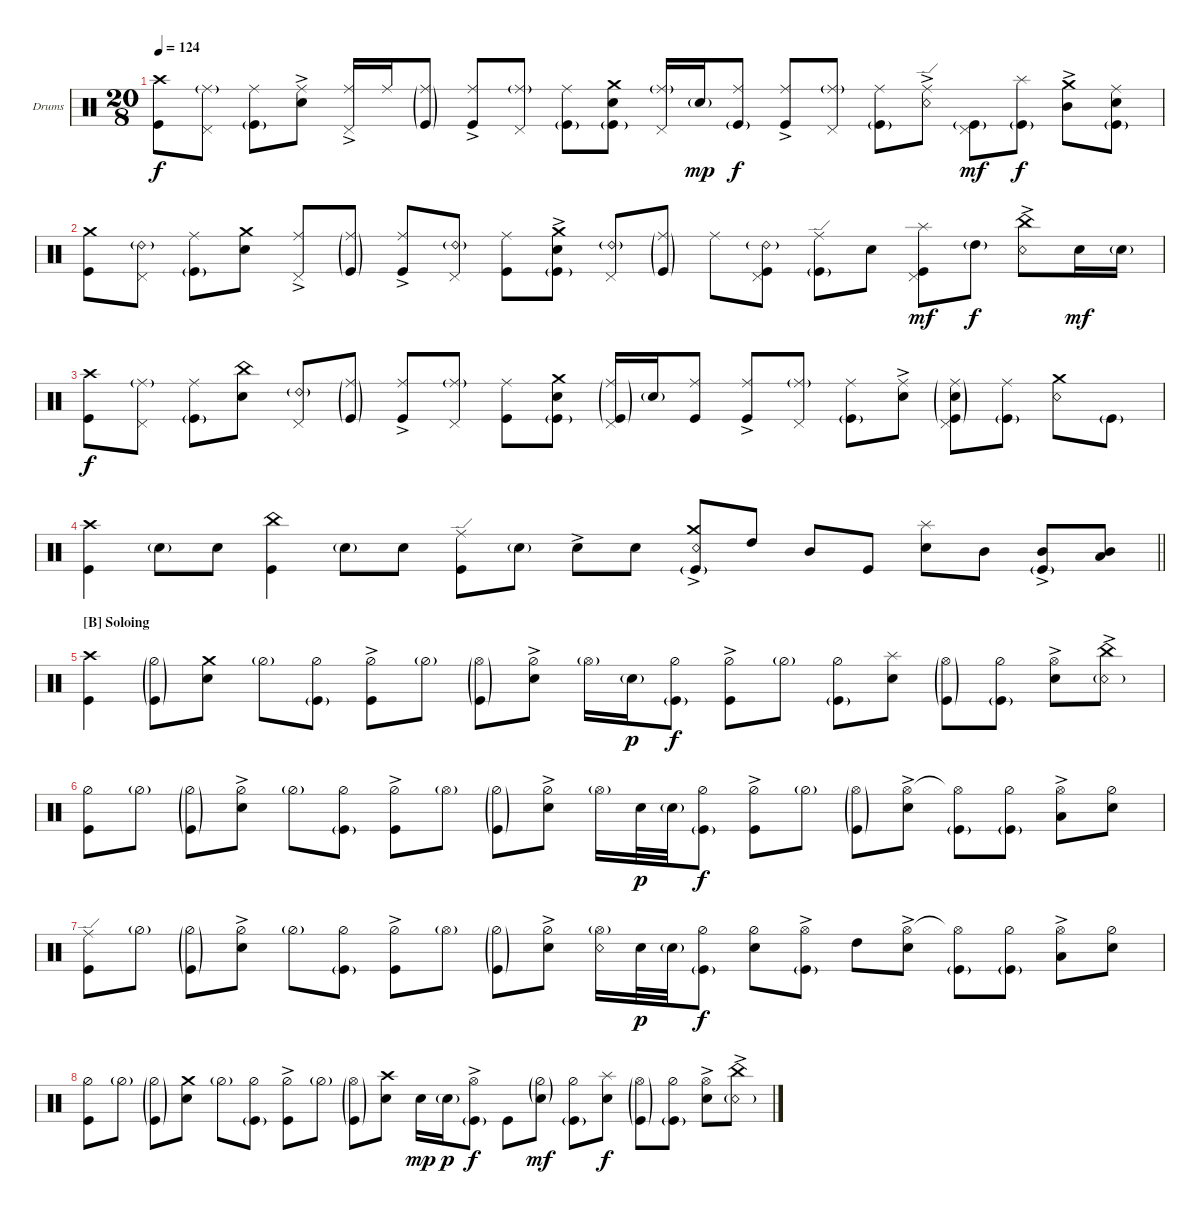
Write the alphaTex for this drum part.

\bracketExtendMode groupsimilarinstruments
\firstSystemTrackNameOrientation horizontal
\otherSystemsTrackNameOrientation horizontal
\track ("Drumkit" "Drums") {instrument percussion}
\staff {score}
\articulation defaults
\ts (20 8)
\tempo 124
\clef neutral
\ks c
("Kick (hit)" "Crash high (hit)").8{dy f} ("Ride (middle)"{g} "Pedal Hi-Hat (hit)").8 ("Ride (middle)" "Kick (hit)"{g}).8 ("Ride (middle)"{ac} "Snare (hit) 2").8 ("Ride (middle)"{ac} "Pedal Hi-Hat (hit)").16 "Ride (middle)".16 ("Ride (middle)"{g} "Kick (hit)"{g}).8 ("Ride (middle)"{ac} "Kick (hit)").8 ("Ride (middle)"{g} "Pedal Hi-Hat (hit)").8 ("Ride (middle)" "Kick (hit)"{g}).8 ("Snare (hit) 2" "Crash medium (hit)" "Kick (hit)"{g}).8 ("Ride (middle)"{g} "Pedal Hi-Hat (hit)").16 "Snare (hit) 2"{g}.16{dy mp} ("Ride (middle)" "Kick (hit)"{g}).8{dy f} ("Kick (hit)" "Ride (middle)"{ac}).8 ("Ride (middle)"{g} "Pedal Hi-Hat (hit)").8 ("Ride (middle)" "Kick (hit)"{g}).8 ("Ride (edge)"{ac} "Snare (rim shot)").8 ("Kick (hit)"{g} "Pedal Hi-Hat (hit)").8{dy mf} ("Kick (hit)"{g} "Splash (hit)").8{dy f} ("Mid Tom (hit)"{ac} "Crash medium (hit)").8 ("Kick (hit)"{g} "Snare (hit) 2" "Ride (middle)").8 |
("Kick (hit)" "Crash medium (hit)").8 ("Ride (bell) 2"{g} "Pedal Hi-Hat (hit)").8 ("Ride (middle)" "Kick (hit)"{g}).8 ("Snare (hit) 2" "Crash medium (hit)").8 ("Ride (middle)"{ac} "Pedal Hi-Hat (hit)").8 ("Ride (middle)"{g} "Kick (hit)"{g}).8 ("Ride (middle)"{ac} "Kick (hit)").8 ("Ride (bell) 2"{g} "Pedal Hi-Hat (hit)").8 ("Ride (middle)" "Kick (hit)").8 ("Snare (hit) 2" "Crash medium (hit)"{ac} "Kick (hit)"{g}).8 ("Ride (bell) 2"{g} "Pedal Hi-Hat (hit)").8 ("Ride (middle)"{g} "Kick (hit)"{g}).8 "Ride (middle)".8 ("Ride (bell) 2"{g} "Kick (hit)" "Pedal Hi-Hat (hit)").8 ("Kick (hit)"{g} "Ride (edge)").8 "Snare (hit) 2".8 ("Kick (hit)" "Splash (hit)" "Pedal Hi-Hat (hit)").8{dy mf} "High Tom (hit)"{g}.8{dy f} ("Snare (rim shot)" "China (hit)"{ac}).8 "Snare (hit) 2".16{dy mf} "Snare (hit) 2"{g}.16 |
("Kick (hit)" "Crash high (hit)").8{dy f} ("Ride (middle)"{g} "Pedal Hi-Hat (hit)").8 ("Ride (middle)" "Kick (hit)"{g}).8 ("Snare (hit) 2" "China (hit)").8 ("Ride (bell) 2"{g} "Pedal Hi-Hat (hit)").8 ("Ride (middle)"{g} "Kick (hit)"{g}).8 ("Ride (middle)"{ac} "Kick (hit)").8 ("Ride (middle)"{g} "Pedal Hi-Hat (hit)").8 ("Ride (middle)" "Kick (hit)").8 ("Snare (hit) 2" "Crash medium (hit)" "Kick (hit)"{g}).8 ("Kick (hit)"{g} "Pedal Hi-Hat (hit)" "Ride (middle)"{g}).16 "Snare (hit) 2"{g}.16 ("Ride (middle)" "Kick (hit)").8 ("Kick (hit)" "Ride (middle)"{ac}).8 ("Ride (middle)"{g} "Pedal Hi-Hat (hit)").8 ("Ride (middle)" "Kick (hit)"{g}).8 ("Ride (middle)"{ac} "Snare (hit) 2").8 ("Ride (middle)"{g} "Snare (hit) 2"{g} "Kick (hit)"{g} "Pedal Hi-Hat (hit)").8 ("Ride (middle)" "Kick (hit)"{g}).8 ("Snare (rim shot)" "Crash medium (hit)").8 "Kick (hit)"{g}.8 |
\barLineRight lightlight
("Kick (hit)" "Crash high (hit)").4 "Snare (hit) 2"{g}.8 "Snare (hit) 2".8 ("Kick (hit)" "China (hit)").4 "Snare (hit) 2"{g}.8 "Snare (hit) 2".8 ("Kick (hit)" "Ride (edge)").8 "Snare (hit) 2"{g}.8 "Snare (hit) 2"{ac}.8 "Snare (hit) 2".8 ("Kick (hit)"{g} "Crash medium (hit)"{ac} "Snare (rim shot)").8 "High Tom (hit)".8 "Mid Tom (hit)".8 "Kick (hit)".8 ("Splash (hit)" "Snare (hit) 2").8 "Mid Tom (hit)".8 ("Mid Tom (hit)"{ac} "Kick (hit)"{g}).8 ("Mid Tom (hit)" "Low Tom (hit)").8 |
\section ("B" "Soloing ")
("Kick (hit)" "Crash high (hit)").4 ("Kick (hit)"{g} "Hi-Hat (half)"{g}).8 ("Snare (hit) 2" "Crash medium (hit)").8 "Hi-Hat (half)"{g}.8 ("Kick (hit)"{g} "Hi-Hat (half)").8 ("Kick (hit)" "Hi-Hat (half)"{ac}).8 "Hi-Hat (half)"{g}.8 ("Kick (hit)"{g} "Hi-Hat (open)"{g}).8 ("Snare (hit) 2" "Hi-Hat (half)"{ac}).8 "Hi-Hat (open)"{g}.16 "Snare (hit) 2"{g}.16{dy p} ("Kick (hit)"{g} "Hi-Hat (half)").8{dy f} ("Kick (hit)" "Hi-Hat (half)"{ac}).8 "Hi-Hat (half)"{g}.8 ("Kick (hit)"{g} "Hi-Hat (half)").8 ("Snare (hit) 2" "Splash (hit)").8 ("Kick (hit)"{g} "Hi-Hat (open)"{g}).8 ("Kick (hit)"{g} "Hi-Hat (half)").8 ("Snare (hit) 2" "Hi-Hat (open)"{ac}).8 ("Snare (rim shot)"{g} "China (hit)"{ac}).8 |
("Kick (hit)" "Hi-Hat (half)").8 "Hi-Hat (half)"{g}.8 ("Kick (hit)"{g} "Hi-Hat (half)"{g}).8 ("Snare (hit) 2" "Hi-Hat (half)"{ac}).8 "Hi-Hat (half)"{g}.8 ("Kick (hit)"{g} "Hi-Hat (half)").8 ("Kick (hit)" "Hi-Hat (half)"{ac}).8 "Hi-Hat (open)"{g}.8 ("Kick (hit)"{g} "Hi-Hat (half)"{g}).8 ("Snare (hit) 2" "Hi-Hat (half)"{ac}).8 "Hi-Hat (open)"{g}.16 "Snare (hit) 2".32{dy p} "Snare (hit) 2"{g}.32 ("Kick (hit)"{g} "Hi-Hat (half)").8{dy f} ("Kick (hit)" "Hi-Hat (half)"{ac}).8 "Hi-Hat (half)"{g}.8 ("Kick (hit)"{g} "Hi-Hat (open)"{g}).8 ("Snare (hit) 2" "Hi-Hat (open)"{ac}).8 ("Kick (hit)"{g} "Hi-Hat (open)"{t}).8 ("Hi-Hat (half)" "Kick (hit)"{g}).8 ("Low Tom (hit)"{ac} "Hi-Hat (open)").8 ("Snare (hit) 2" "Hi-Hat (half)").8 |
("Kick (hit)" "Ride (edge)").8 "Hi-Hat (half)"{g}.8 ("Kick (hit)"{g} "Hi-Hat (half)"{g}).8 ("Snare (hit) 2" "Hi-Hat (half)"{ac}).8 "Hi-Hat (half)"{g}.8 ("Kick (hit)"{g} "Hi-Hat (half)").8 ("Kick (hit)" "Hi-Hat (half)"{ac}).8 "Hi-Hat (open)"{g}.8 ("Kick (hit)"{g} "Hi-Hat (half)"{g}).8 ("Snare (hit) 2" "Hi-Hat (half)"{ac}).8 ("Hi-Hat (open)"{g} "Snare (rim shot)").16 "Snare (hit) 2".32{dy p} "Snare (hit) 2"{g}.32 ("Kick (hit)"{g} "Hi-Hat (half)").8{dy f} ("Hi-Hat (half)" "Snare (hit) 2").8 ("Hi-Hat (open)"{ac} "Kick (hit)"{g}).8 "High Tom (hit)".8 ("Snare (hit) 2" "Hi-Hat (open)"{ac}).8 ("Kick (hit)"{g} "Hi-Hat (open)"{t}).8 ("Hi-Hat (half)" "Kick (hit)"{g}).8 ("Low Tom (hit)"{ac} "Hi-Hat (open)").8 ("Snare (hit) 2" "Hi-Hat (half)").8 |
("Kick (hit)" "Hi-Hat (half)").8 "Hi-Hat (half)"{g}.8 ("Kick (hit)"{g} "Hi-Hat (half)"{g}).8 ("Snare (hit) 2" "Crash medium (hit)").8 "Hi-Hat (half)"{g}.8 ("Kick (hit)"{g} "Hi-Hat (half)").8 ("Kick (hit)" "Hi-Hat (half)"{ac}).8 "Hi-Hat (half)"{g}.8 ("Kick (hit)"{g} "Hi-Hat (open)"{g}).8 ("Snare (hit) 2" "Crash high (hit)").8 "Snare (hit) 2".16{dy mp} "Snare (hit) 2"{g}.16{dy p} ("Kick (hit)"{g} "Hi-Hat (open)"{ac}).8{dy f} "Kick (hit)".8 ("Hi-Hat (half)"{g} "Snare (hit) 2"{g}).8{dy mf} ("Kick (hit)"{g} "Hi-Hat (half)").8 ("Snare (hit) 2" "Splash (hit)").8{dy f} ("Kick (hit)"{g} "Hi-Hat (open)"{g}).8 ("Kick (hit)"{g} "Hi-Hat (half)").8 ("Snare (hit) 2" "Hi-Hat (open)"{ac}).8 ("Snare (rim shot)"{g} "China (hit)"{ac}).8
